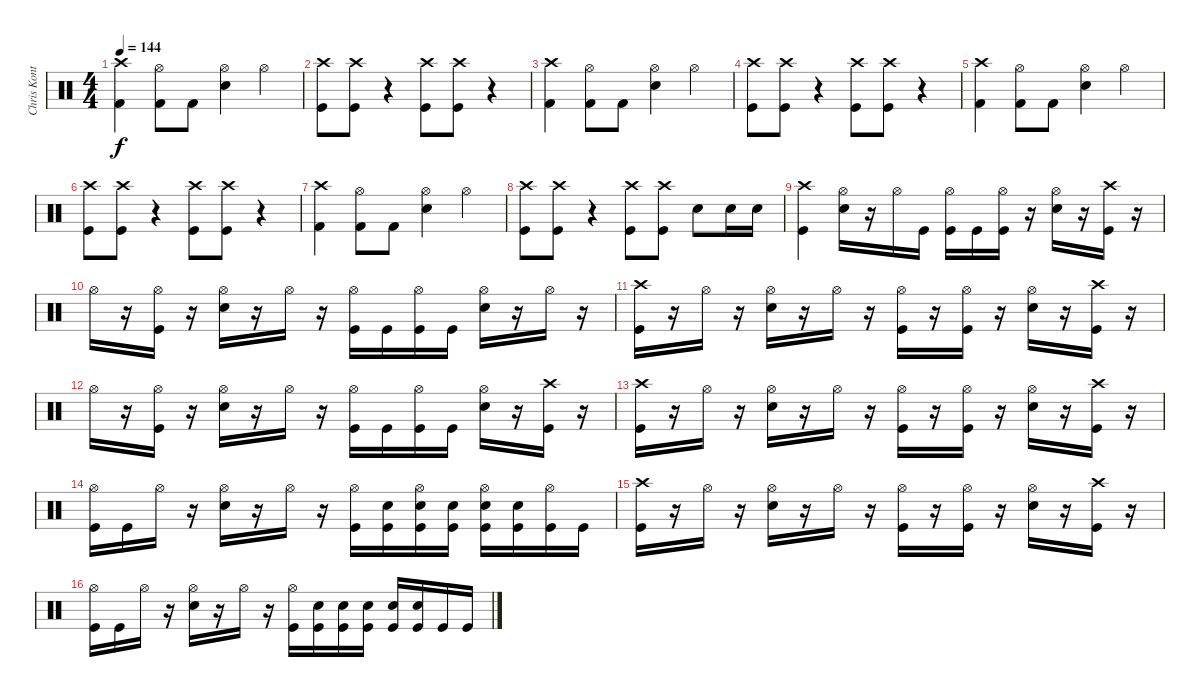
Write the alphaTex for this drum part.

\track ("Chris Kontos" "Chris Kont") {instrument percussion}
\staff {score}
\articulation defaults
\ts (4 4)
\tempo 144
\clef neutral
\ks c
("Crash high (hit)" "Kick (hit) 2").4{dy f} ("Hi-Hat (open)" "Kick (hit) 2").8 "Kick (hit) 2".8 ("Hi-Hat (open)" "Electric Snare (hit)").4 "Hi-Hat (open)".4 |
("Crash high (hit)" "Kick (hit)").8 ("Crash high (hit)" "Kick (hit)").8 r.4 ("Crash high (hit)" "Kick (hit)").8 ("Crash high (hit)" "Kick (hit)").8 r.4 |
("Crash high (hit)" "Kick (hit) 2").4 ("Hi-Hat (open)" "Kick (hit) 2").8 "Kick (hit) 2".8 ("Hi-Hat (open)" "Electric Snare (hit)").4 "Hi-Hat (open)".4 |
("Crash high (hit)" "Kick (hit)").8 ("Crash high (hit)" "Kick (hit)").8 r.4 ("Crash high (hit)" "Kick (hit)").8 ("Crash high (hit)" "Kick (hit)").8 r.4 |
("Crash high (hit)" "Kick (hit) 2").4 ("Hi-Hat (open)" "Kick (hit) 2").8 "Kick (hit) 2".8 ("Hi-Hat (open)" "Electric Snare (hit)").4 "Hi-Hat (open)".4 |
("Crash high (hit)" "Kick (hit)").8 ("Crash high (hit)" "Kick (hit)").8 r.4 ("Crash high (hit)" "Kick (hit)").8 ("Crash high (hit)" "Kick (hit)").8 r.4 |
("Crash high (hit)" "Kick (hit) 2").4 ("Hi-Hat (open)" "Kick (hit) 2").8 "Kick (hit) 2".8 ("Hi-Hat (open)" "Electric Snare (hit)").4 "Hi-Hat (open)".4 |
("Crash high (hit)" "Kick (hit)").8 ("Crash high (hit)" "Kick (hit)").8 r.4 ("Crash high (hit)" "Kick (hit)").8 ("Crash high (hit)" "Kick (hit)").8 "Electric Snare (hit)".8 "Electric Snare (hit)".16 "Electric Snare (hit)".16 |
("Crash high (hit)" "Kick (hit)").4 ("Hi-Hat (open)" "Electric Snare (hit)").16 r.16 "Hi-Hat (open)".16 "Kick (hit)".16 ("Hi-Hat (open)" "Kick (hit)").16 "Kick (hit)".16 ("Hi-Hat (open)" "Kick (hit)").16 r.16 ("Hi-Hat (open)" "Electric Snare (hit)").16 r.16 ("Crash high (hit)" "Kick (hit)").16 r.16 |
"Hi-Hat (open)".16 r.16 ("Hi-Hat (open)" "Kick (hit)").16 r.16 ("Hi-Hat (open)" "Electric Snare (hit)").16 r.16 "Hi-Hat (open)".16 r.16 ("Hi-Hat (open)" "Kick (hit)").16 "Kick (hit)".16 ("Hi-Hat (open)" "Kick (hit)").16 "Kick (hit)".16 ("Hi-Hat (open)" "Electric Snare (hit)").16 r.16 "Hi-Hat (open)".16 r.16 |
("Crash high (hit)" "Kick (hit)").16 r.16 "Hi-Hat (open)".16 r.16 ("Hi-Hat (open)" "Electric Snare (hit)").16 r.16 "Hi-Hat (open)".16 r.16 ("Hi-Hat (open)" "Kick (hit)").16 r.16 ("Hi-Hat (open)" "Kick (hit)").16 r.16 ("Hi-Hat (open)" "Electric Snare (hit)").16 r.16 ("Crash high (hit)" "Kick (hit)").16 r.16 |
"Hi-Hat (open)".16 r.16 ("Hi-Hat (open)" "Kick (hit)").16 r.16 ("Hi-Hat (open)" "Electric Snare (hit)").16 r.16 "Hi-Hat (open)".16 r.16 ("Hi-Hat (open)" "Kick (hit)").16 "Kick (hit)".16 ("Hi-Hat (open)" "Kick (hit)").16 "Kick (hit)".16 ("Hi-Hat (open)" "Electric Snare (hit)").16 r.16 ("Crash high (hit)" "Kick (hit)").16 r.16 |
("Crash high (hit)" "Kick (hit)").16 r.16 "Hi-Hat (open)".16 r.16 ("Hi-Hat (open)" "Electric Snare (hit)").16 r.16 "Hi-Hat (open)".16 r.16 ("Hi-Hat (open)" "Kick (hit)").16 r.16 ("Hi-Hat (open)" "Kick (hit)").16 r.16 ("Hi-Hat (open)" "Electric Snare (hit)").16 r.16 ("Crash high (hit)" "Kick (hit)").16 r.16 |
("Hi-Hat (open)" "Kick (hit)").16 "Kick (hit)".16 "Hi-Hat (open)".16 r.16 ("Hi-Hat (open)" "Electric Snare (hit)").16 r.16 "Hi-Hat (open)".16 r.16 ("Hi-Hat (open)" "Kick (hit)").16 ("Electric Snare (hit)" "Kick (hit)").16 ("Hi-Hat (open)" "Electric Snare (hit)" "Kick (hit)").16 ("Electric Snare (hit)" "Kick (hit)").16 ("Hi-Hat (open)" "Electric Snare (hit)" "Kick (hit)").16 ("Electric Snare (hit)" "Kick (hit)").16 ("Hi-Hat (open)" "Kick (hit)").16 "Kick (hit)".16 |
("Crash high (hit)" "Kick (hit)").16 r.16 "Hi-Hat (open)".16 r.16 ("Hi-Hat (open)" "Electric Snare (hit)").16 r.16 "Hi-Hat (open)".16 r.16 ("Hi-Hat (open)" "Kick (hit)").16 r.16 ("Hi-Hat (open)" "Kick (hit)").16 r.16 ("Hi-Hat (open)" "Electric Snare (hit)").16 r.16 ("Crash high (hit)" "Kick (hit)").16 r.16 |
("Hi-Hat (open)" "Kick (hit)").16 "Kick (hit)".16 "Hi-Hat (open)".16 r.16 ("Hi-Hat (open)" "Electric Snare (hit)").16 r.16 "Hi-Hat (open)".16 r.16 ("Hi-Hat (open)" "Kick (hit)").16 ("Electric Snare (hit)" "Kick (hit)").16 ("Electric Snare (hit)" "Kick (hit)").16 ("Electric Snare (hit)" "Kick (hit)").16 ("Electric Snare (hit)" "Kick (hit)").16 ("Electric Snare (hit)" "Kick (hit)").16 "Kick (hit)".16 "Kick (hit)".16
